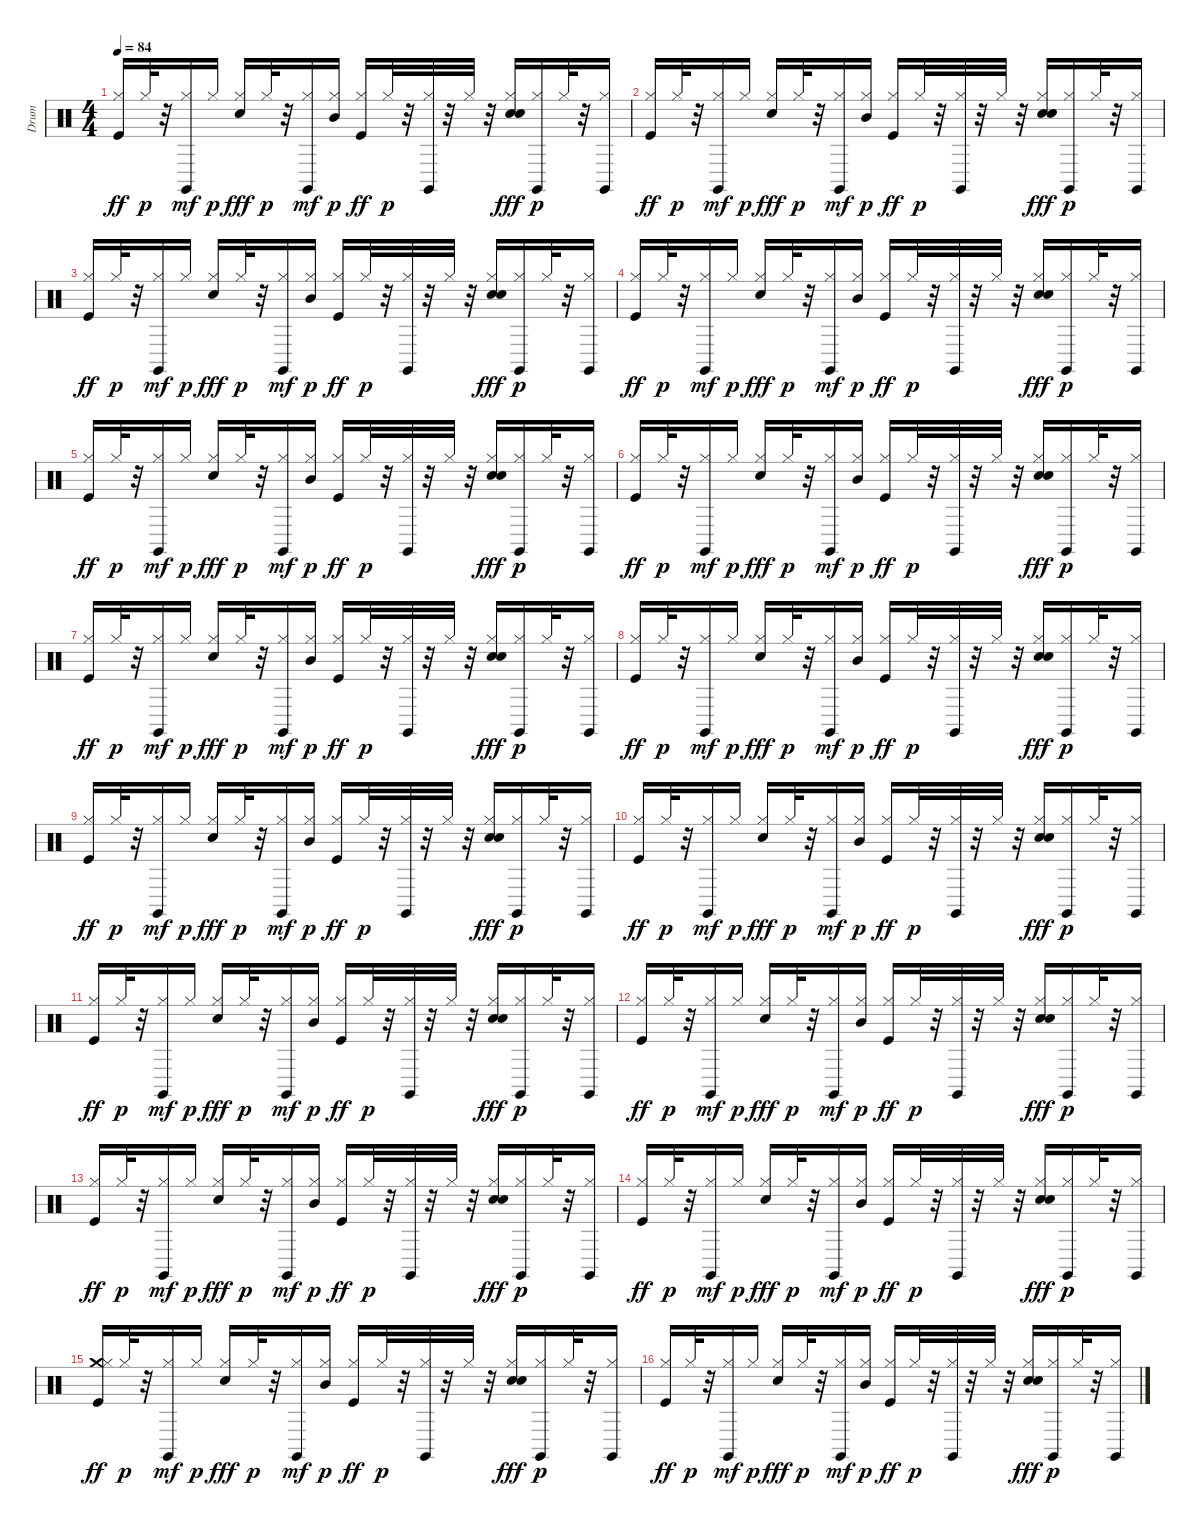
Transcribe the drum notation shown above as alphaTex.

\track ("Drum" "Drum") {instrument percussion}
\staff {score}
\articulation defaults
\ts (4 4)
\tempo 84
\clef neutral
\ks c
("Kick (hit)" "Hi-Hat (closed)").16{dy ff} "Hi-Hat (closed)".32{dy p} r.32 ("Hi-Hat (closed)" "Claves (hit)").16{dy mf} "Hi-Hat (closed)".16{dy p} ("Hi-Hat (closed)" "Snare (hit) 2").16{dy fff} "Hi-Hat (closed)".32{dy p} r.32 ("Hi-Hat (closed)" "Claves (hit)").16{dy mf} ("Hi-Hat (closed)" "Mid Tom (hit)").16{dy p} ("Kick (hit)" "Hi-Hat (closed)").16{dy ff} "Hi-Hat (closed)".32{dy p} r.32 ("Hi-Hat (closed)" "Claves (hit)").32 r.32 "Hi-Hat (closed)".32 r.32 ("Hi-Hat (closed)" "Snare (hit) 2" "Hand Clap (hit)").16{dy fff} ("Hi-Hat (closed)" "Claves (hit)").16{dy p} "Hi-Hat (closed)".32 r.32 ("Hi-Hat (closed)" "Claves (hit)").16 |
("Kick (hit)" "Hi-Hat (closed)").16{dy ff} "Hi-Hat (closed)".32{dy p} r.32 ("Hi-Hat (closed)" "Claves (hit)").16{dy mf} "Hi-Hat (closed)".16{dy p} ("Hi-Hat (closed)" "Snare (hit) 2").16{dy fff} "Hi-Hat (closed)".32{dy p} r.32 ("Hi-Hat (closed)" "Claves (hit)").16{dy mf} ("Hi-Hat (closed)" "Mid Tom (hit)").16{dy p} ("Kick (hit)" "Hi-Hat (closed)").16{dy ff} "Hi-Hat (closed)".32{dy p} r.32 ("Hi-Hat (closed)" "Claves (hit)").32 r.32 "Hi-Hat (closed)".32 r.32 ("Hi-Hat (closed)" "Snare (hit) 2" "Hand Clap (hit)").16{dy fff} ("Hi-Hat (closed)" "Claves (hit)").16{dy p} "Hi-Hat (closed)".32 r.32 ("Hi-Hat (closed)" "Claves (hit)").16 |
("Kick (hit)" "Hi-Hat (closed)").16{dy ff} "Hi-Hat (closed)".32{dy p} r.32 ("Hi-Hat (closed)" "Claves (hit)").16{dy mf} "Hi-Hat (closed)".16{dy p} ("Hi-Hat (closed)" "Snare (hit) 2").16{dy fff} "Hi-Hat (closed)".32{dy p} r.32 ("Hi-Hat (closed)" "Claves (hit)").16{dy mf} ("Hi-Hat (closed)" "Mid Tom (hit)").16{dy p} ("Kick (hit)" "Hi-Hat (closed)").16{dy ff} "Hi-Hat (closed)".32{dy p} r.32 ("Hi-Hat (closed)" "Claves (hit)").32 r.32 "Hi-Hat (closed)".32 r.32 ("Hi-Hat (closed)" "Snare (hit) 2" "Hand Clap (hit)").16{dy fff} ("Hi-Hat (closed)" "Claves (hit)").16{dy p} "Hi-Hat (closed)".32 r.32 ("Hi-Hat (closed)" "Claves (hit)").16 |
("Kick (hit)" "Hi-Hat (closed)").16{dy ff} "Hi-Hat (closed)".32{dy p} r.32 ("Hi-Hat (closed)" "Claves (hit)").16{dy mf} "Hi-Hat (closed)".16{dy p} ("Hi-Hat (closed)" "Snare (hit) 2").16{dy fff} "Hi-Hat (closed)".32{dy p} r.32 ("Hi-Hat (closed)" "Claves (hit)").16{dy mf} ("Hi-Hat (closed)" "Mid Tom (hit)").16{dy p} ("Kick (hit)" "Hi-Hat (closed)").16{dy ff} "Hi-Hat (closed)".32{dy p} r.32 ("Hi-Hat (closed)" "Claves (hit)").32 r.32 "Hi-Hat (closed)".32 r.32 ("Hi-Hat (closed)" "Snare (hit) 2" "Hand Clap (hit)").16{dy fff} ("Hi-Hat (closed)" "Claves (hit)").16{dy p} "Hi-Hat (closed)".32 r.32 ("Hi-Hat (closed)" "Claves (hit)").16 |
("Kick (hit)" "Hi-Hat (closed)").16{dy ff} "Hi-Hat (closed)".32{dy p} r.32 ("Hi-Hat (closed)" "Claves (hit)").16{dy mf} "Hi-Hat (closed)".16{dy p} ("Hi-Hat (closed)" "Snare (hit) 2").16{dy fff} "Hi-Hat (closed)".32{dy p} r.32 ("Hi-Hat (closed)" "Claves (hit)").16{dy mf} ("Hi-Hat (closed)" "Mid Tom (hit)").16{dy p} ("Kick (hit)" "Hi-Hat (closed)").16{dy ff} "Hi-Hat (closed)".32{dy p} r.32 ("Hi-Hat (closed)" "Claves (hit)").32 r.32 "Hi-Hat (closed)".32 r.32 ("Hi-Hat (closed)" "Snare (hit) 2" "Hand Clap (hit)").16{dy fff} ("Hi-Hat (closed)" "Claves (hit)").16{dy p} "Hi-Hat (closed)".32 r.32 ("Hi-Hat (closed)" "Claves (hit)").16 |
("Kick (hit)" "Hi-Hat (closed)").16{dy ff} "Hi-Hat (closed)".32{dy p} r.32 ("Hi-Hat (closed)" "Claves (hit)").16{dy mf} "Hi-Hat (closed)".16{dy p} ("Hi-Hat (closed)" "Snare (hit) 2").16{dy fff} "Hi-Hat (closed)".32{dy p} r.32 ("Hi-Hat (closed)" "Claves (hit)").16{dy mf} ("Hi-Hat (closed)" "Mid Tom (hit)").16{dy p} ("Kick (hit)" "Hi-Hat (closed)").16{dy ff} "Hi-Hat (closed)".32{dy p} r.32 ("Hi-Hat (closed)" "Claves (hit)").32 r.32 "Hi-Hat (closed)".32 r.32 ("Hi-Hat (closed)" "Snare (hit) 2" "Hand Clap (hit)").16{dy fff} ("Hi-Hat (closed)" "Claves (hit)").16{dy p} "Hi-Hat (closed)".32 r.32 ("Hi-Hat (closed)" "Claves (hit)").16 |
("Kick (hit)" "Hi-Hat (closed)").16{dy ff} "Hi-Hat (closed)".32{dy p} r.32 ("Hi-Hat (closed)" "Claves (hit)").16{dy mf} "Hi-Hat (closed)".16{dy p} ("Hi-Hat (closed)" "Snare (hit) 2").16{dy fff} "Hi-Hat (closed)".32{dy p} r.32 ("Hi-Hat (closed)" "Claves (hit)").16{dy mf} ("Hi-Hat (closed)" "Mid Tom (hit)").16{dy p} ("Kick (hit)" "Hi-Hat (closed)").16{dy ff} "Hi-Hat (closed)".32{dy p} r.32 ("Hi-Hat (closed)" "Claves (hit)").32 r.32 "Hi-Hat (closed)".32 r.32 ("Hi-Hat (closed)" "Snare (hit) 2" "Hand Clap (hit)").16{dy fff} ("Hi-Hat (closed)" "Claves (hit)").16{dy p} "Hi-Hat (closed)".32 r.32 ("Hi-Hat (closed)" "Claves (hit)").16 |
("Kick (hit)" "Hi-Hat (closed)").16{dy ff} "Hi-Hat (closed)".32{dy p} r.32 ("Hi-Hat (closed)" "Claves (hit)").16{dy mf} "Hi-Hat (closed)".16{dy p} ("Hi-Hat (closed)" "Snare (hit) 2").16{dy fff} "Hi-Hat (closed)".32{dy p} r.32 ("Hi-Hat (closed)" "Claves (hit)").16{dy mf} ("Hi-Hat (closed)" "Mid Tom (hit)").16{dy p} ("Kick (hit)" "Hi-Hat (closed)").16{dy ff} "Hi-Hat (closed)".32{dy p} r.32 ("Hi-Hat (closed)" "Claves (hit)").32 r.32 "Hi-Hat (closed)".32 r.32 ("Hi-Hat (closed)" "Snare (hit) 2" "Hand Clap (hit)").16{dy fff} ("Hi-Hat (closed)" "Claves (hit)").16{dy p} "Hi-Hat (closed)".32 r.32 ("Hi-Hat (closed)" "Claves (hit)").16 |
("Kick (hit)" "Hi-Hat (closed)").16{dy ff} "Hi-Hat (closed)".32{dy p} r.32 ("Hi-Hat (closed)" "Claves (hit)").16{dy mf} "Hi-Hat (closed)".16{dy p} ("Hi-Hat (closed)" "Snare (hit) 2").16{dy fff} "Hi-Hat (closed)".32{dy p} r.32 ("Hi-Hat (closed)" "Claves (hit)").16{dy mf} ("Hi-Hat (closed)" "Mid Tom (hit)").16{dy p} ("Kick (hit)" "Hi-Hat (closed)").16{dy ff} "Hi-Hat (closed)".32{dy p} r.32 ("Hi-Hat (closed)" "Claves (hit)").32 r.32 "Hi-Hat (closed)".32 r.32 ("Hi-Hat (closed)" "Snare (hit) 2" "Hand Clap (hit)").16{dy fff} ("Hi-Hat (closed)" "Claves (hit)").16{dy p} "Hi-Hat (closed)".32 r.32 ("Hi-Hat (closed)" "Claves (hit)").16 |
("Kick (hit)" "Hi-Hat (closed)").16{dy ff} "Hi-Hat (closed)".32{dy p} r.32 ("Hi-Hat (closed)" "Claves (hit)").16{dy mf} "Hi-Hat (closed)".16{dy p} ("Hi-Hat (closed)" "Snare (hit) 2").16{dy fff} "Hi-Hat (closed)".32{dy p} r.32 ("Hi-Hat (closed)" "Claves (hit)").16{dy mf} ("Hi-Hat (closed)" "Mid Tom (hit)").16{dy p} ("Kick (hit)" "Hi-Hat (closed)").16{dy ff} "Hi-Hat (closed)".32{dy p} r.32 ("Hi-Hat (closed)" "Claves (hit)").32 r.32 "Hi-Hat (closed)".32 r.32 ("Hi-Hat (closed)" "Snare (hit) 2" "Hand Clap (hit)").16{dy fff} ("Hi-Hat (closed)" "Claves (hit)").16{dy p} "Hi-Hat (closed)".32 r.32 ("Hi-Hat (closed)" "Claves (hit)").16 |
("Kick (hit)" "Hi-Hat (closed)").16{dy ff} "Hi-Hat (closed)".32{dy p} r.32 ("Hi-Hat (closed)" "Claves (hit)").16{dy mf} "Hi-Hat (closed)".16{dy p} ("Hi-Hat (closed)" "Snare (hit) 2").16{dy fff} "Hi-Hat (closed)".32{dy p} r.32 ("Hi-Hat (closed)" "Claves (hit)").16{dy mf} ("Hi-Hat (closed)" "Mid Tom (hit)").16{dy p} ("Kick (hit)" "Hi-Hat (closed)").16{dy ff} "Hi-Hat (closed)".32{dy p} r.32 ("Hi-Hat (closed)" "Claves (hit)").32 r.32 "Hi-Hat (closed)".32 r.32 ("Hi-Hat (closed)" "Snare (hit) 2" "Hand Clap (hit)").16{dy fff} ("Hi-Hat (closed)" "Claves (hit)").16{dy p} "Hi-Hat (closed)".32 r.32 ("Hi-Hat (closed)" "Claves (hit)").16 |
("Kick (hit)" "Hi-Hat (closed)").16{dy ff} "Hi-Hat (closed)".32{dy p} r.32 ("Hi-Hat (closed)" "Claves (hit)").16{dy mf} "Hi-Hat (closed)".16{dy p} ("Hi-Hat (closed)" "Snare (hit) 2").16{dy fff} "Hi-Hat (closed)".32{dy p} r.32 ("Hi-Hat (closed)" "Claves (hit)").16{dy mf} ("Hi-Hat (closed)" "Mid Tom (hit)").16{dy p} ("Kick (hit)" "Hi-Hat (closed)").16{dy ff} "Hi-Hat (closed)".32{dy p} r.32 ("Hi-Hat (closed)" "Claves (hit)").32 r.32 "Hi-Hat (closed)".32 r.32 ("Hi-Hat (closed)" "Snare (hit) 2" "Hand Clap (hit)").16{dy fff} ("Hi-Hat (closed)" "Claves (hit)").16{dy p} "Hi-Hat (closed)".32 r.32 ("Hi-Hat (closed)" "Claves (hit)").16 |
("Kick (hit)" "Hi-Hat (closed)").16{dy ff} "Hi-Hat (closed)".32{dy p} r.32 ("Hi-Hat (closed)" "Claves (hit)").16{dy mf} "Hi-Hat (closed)".16{dy p} ("Hi-Hat (closed)" "Snare (hit) 2").16{dy fff} "Hi-Hat (closed)".32{dy p} r.32 ("Hi-Hat (closed)" "Claves (hit)").16{dy mf} ("Hi-Hat (closed)" "Mid Tom (hit)").16{dy p} ("Kick (hit)" "Hi-Hat (closed)").16{dy ff} "Hi-Hat (closed)".32{dy p} r.32 ("Hi-Hat (closed)" "Claves (hit)").32 r.32 "Hi-Hat (closed)".32 r.32 ("Hi-Hat (closed)" "Snare (hit) 2" "Hand Clap (hit)").16{dy fff} ("Hi-Hat (closed)" "Claves (hit)").16{dy p} "Hi-Hat (closed)".32 r.32 ("Hi-Hat (closed)" "Claves (hit)").16 |
("Kick (hit)" "Hi-Hat (closed)").16{dy ff} "Hi-Hat (closed)".32{dy p} r.32 ("Hi-Hat (closed)" "Claves (hit)").16{dy mf} "Hi-Hat (closed)".16{dy p} ("Hi-Hat (closed)" "Snare (hit) 2").16{dy fff} "Hi-Hat (closed)".32{dy p} r.32 ("Hi-Hat (closed)" "Claves (hit)").16{dy mf} ("Hi-Hat (closed)" "Mid Tom (hit)").16{dy p} ("Kick (hit)" "Hi-Hat (closed)").16{dy ff} "Hi-Hat (closed)".32{dy p} r.32 ("Hi-Hat (closed)" "Claves (hit)").32 r.32 "Hi-Hat (closed)".32 r.32 ("Hi-Hat (closed)" "Snare (hit) 2" "Hand Clap (hit)").16{dy fff} ("Hi-Hat (closed)" "Claves (hit)").16{dy p} "Hi-Hat (closed)".32 r.32 ("Hi-Hat (closed)" "Claves (hit)").16 |
("Crash medium (hit)" "Kick (hit)" "Hi-Hat (closed)").16{dy ff} "Hi-Hat (closed)".32{dy p} r.32 ("Hi-Hat (closed)" "Claves (hit)").16{dy mf} "Hi-Hat (closed)".16{dy p} ("Hi-Hat (closed)" "Snare (hit) 2").16{dy fff} "Hi-Hat (closed)".32{dy p} r.32 ("Hi-Hat (closed)" "Claves (hit)").16{dy mf} ("Hi-Hat (closed)" "Mid Tom (hit)").16{dy p} ("Kick (hit)" "Hi-Hat (closed)").16{dy ff} "Hi-Hat (closed)".32{dy p} r.32 ("Hi-Hat (closed)" "Claves (hit)").32 r.32 "Hi-Hat (closed)".32 r.32 ("Hi-Hat (closed)" "Snare (hit) 2" "Hand Clap (hit)").16{dy fff} ("Hi-Hat (closed)" "Claves (hit)").16{dy p} "Hi-Hat (closed)".32 r.32 ("Hi-Hat (closed)" "Claves (hit)").16 |
("Kick (hit)" "Hi-Hat (closed)").16{dy ff} "Hi-Hat (closed)".32{dy p} r.32 ("Hi-Hat (closed)" "Claves (hit)").16{dy mf} "Hi-Hat (closed)".16{dy p} ("Hi-Hat (closed)" "Snare (hit) 2").16{dy fff} "Hi-Hat (closed)".32{dy p} r.32 ("Hi-Hat (closed)" "Claves (hit)").16{dy mf} ("Hi-Hat (closed)" "Mid Tom (hit)").16{dy p} ("Kick (hit)" "Hi-Hat (closed)").16{dy ff} "Hi-Hat (closed)".32{dy p} r.32 ("Hi-Hat (closed)" "Claves (hit)").32 r.32 "Hi-Hat (closed)".32 r.32 ("Hi-Hat (closed)" "Snare (hit) 2" "Hand Clap (hit)").16{dy fff} ("Hi-Hat (closed)" "Claves (hit)").16{dy p} "Hi-Hat (closed)".32 r.32 ("Hi-Hat (closed)" "Claves (hit)").16
